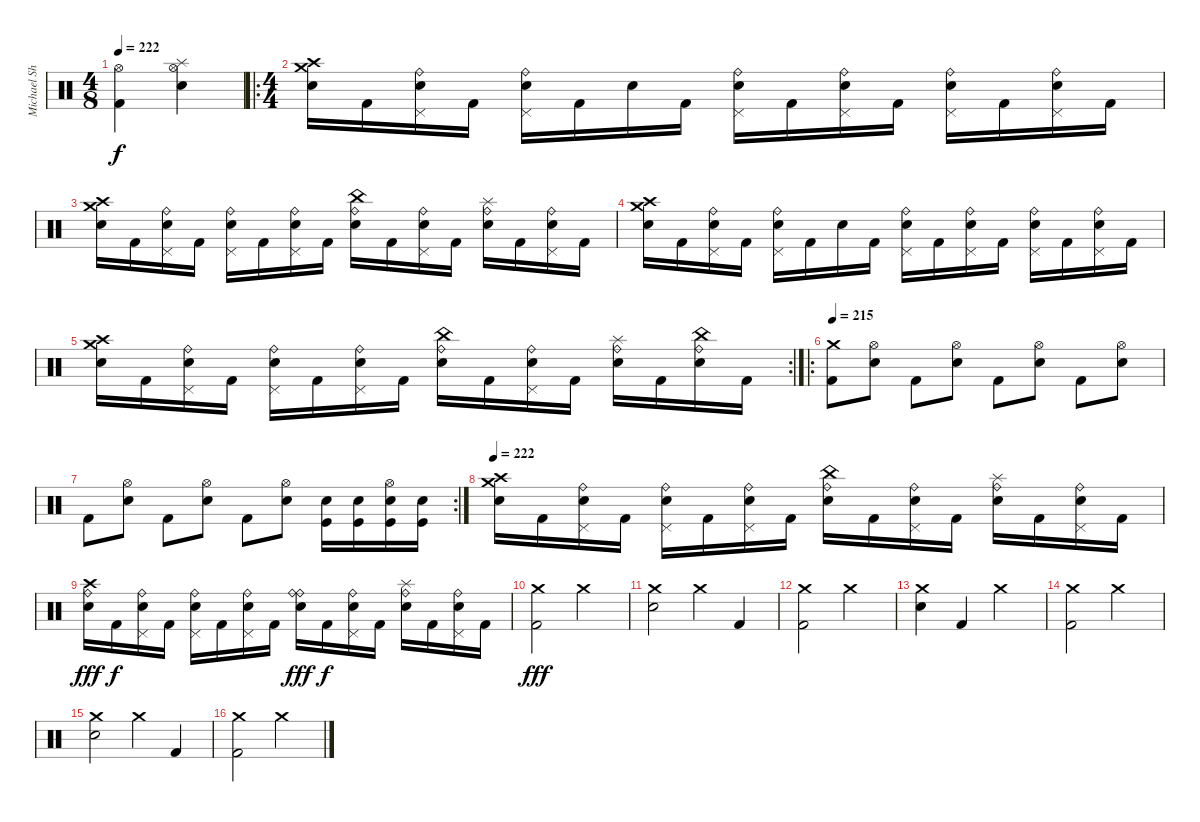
\track ("Michael Sharp" "Michael Sh") {instrument percussion}
\staff {score}
\articulation defaults
\ts (4 8)
\tempo 222
\clef neutral
\ks c
("Hi-Hat (open)" "Kick (hit) 2").4{dy f} ("Hi-Hat (open)" "Splash (hit)" "Electric Snare (hit)").4 |
\ro
\ts (4 4)
("Crash medium (hit)" "Crash high (hit)" "Electric Snare (hit)").16 "Kick (hit) 2".16 ("Pedal Hi-Hat (hit)" "Ride (bell)" "Electric Snare (hit)").16 "Kick (hit) 2".16 ("Pedal Hi-Hat (hit)" "Ride (bell)" "Electric Snare (hit)").16 "Kick (hit) 2".16 "Electric Snare (hit)".16 "Kick (hit) 2".16 ("Pedal Hi-Hat (hit)" "Ride (bell)" "Electric Snare (hit)").16 "Kick (hit) 2".16 ("Pedal Hi-Hat (hit)" "Ride (bell)" "Electric Snare (hit)").16 "Kick (hit) 2".16 ("Pedal Hi-Hat (hit)" "Ride (bell)" "Electric Snare (hit)").16 "Kick (hit) 2".16 ("Pedal Hi-Hat (hit)" "Ride (bell)" "Electric Snare (hit)").16 "Kick (hit) 2".16 |
("Crash medium (hit)" "Crash high (hit)" "Electric Snare (hit)").16 "Kick (hit) 2".16 ("Pedal Hi-Hat (hit)" "Ride (bell)" "Electric Snare (hit)").16 "Kick (hit) 2".16 ("Pedal Hi-Hat (hit)" "Ride (bell)" "Electric Snare (hit)").16 "Kick (hit) 2".16 ("Pedal Hi-Hat (hit)" "Ride (bell)" "Electric Snare (hit)").16 "Kick (hit) 2".16 ("China (hit)" "Ride (bell)" "Electric Snare (hit)").16 "Kick (hit) 2".16 ("Pedal Hi-Hat (hit)" "Ride (bell)" "Electric Snare (hit)").16 "Kick (hit) 2".16 ("Splash (hit)" "Ride (bell)" "Electric Snare (hit)").16 "Kick (hit) 2".16 ("Pedal Hi-Hat (hit)" "Ride (bell)" "Electric Snare (hit)").16 "Kick (hit) 2".16 |
("Crash medium (hit)" "Crash high (hit)" "Electric Snare (hit)").16 "Kick (hit) 2".16 ("Pedal Hi-Hat (hit)" "Ride (bell)" "Electric Snare (hit)").16 "Kick (hit) 2".16 ("Pedal Hi-Hat (hit)" "Ride (bell)" "Electric Snare (hit)").16 "Kick (hit) 2".16 "Electric Snare (hit)".16 "Kick (hit) 2".16 ("Pedal Hi-Hat (hit)" "Ride (bell)" "Electric Snare (hit)").16 "Kick (hit) 2".16 ("Pedal Hi-Hat (hit)" "Ride (bell)" "Electric Snare (hit)").16 "Kick (hit) 2".16 ("Pedal Hi-Hat (hit)" "Ride (bell)" "Electric Snare (hit)").16 "Kick (hit) 2".16 ("Pedal Hi-Hat (hit)" "Ride (bell)" "Electric Snare (hit)").16 "Kick (hit) 2".16 |
\rc 2
("Crash medium (hit)" "Crash high (hit)" "Electric Snare (hit)").16 "Kick (hit) 2".16 ("Pedal Hi-Hat (hit)" "Ride (bell)" "Electric Snare (hit)").16 "Kick (hit) 2".16 ("Pedal Hi-Hat (hit)" "Ride (bell)" "Electric Snare (hit)").16 "Kick (hit) 2".16 ("Pedal Hi-Hat (hit)" "Ride (bell)" "Electric Snare (hit)").16 "Kick (hit) 2".16 ("China (hit)" "Ride (bell)" "Electric Snare (hit)").16 "Kick (hit) 2".16 ("Pedal Hi-Hat (hit)" "Ride (bell)" "Electric Snare (hit)").16 "Kick (hit) 2".16 ("Splash (hit)" "Ride (bell)" "Electric Snare (hit)").16 "Kick (hit) 2".16 ("China (hit)" "Ride (bell)" "Electric Snare (hit)").16 "Kick (hit) 2".16 |
\ro
\tempo 215
("Crash medium (hit)" "Kick (hit) 2").8 ("Hi-Hat (open)" "Electric Snare (hit)").8 "Kick (hit) 2".8 ("Hi-Hat (open)" "Electric Snare (hit)").8 "Kick (hit) 2".8 ("Hi-Hat (open)" "Electric Snare (hit)").8 "Kick (hit) 2".8 ("Hi-Hat (open)" "Electric Snare (hit)").8 |
\rc 2 "Kick (hit) 2".8
("Hi-Hat (open)" "Electric Snare (hit)").8 "Kick (hit) 2".8 ("Hi-Hat (open)" "Electric Snare (hit)").8 "Kick (hit) 2".8 ("Hi-Hat (open)" "Electric Snare (hit)").8 ("Electric Snare (hit)" "Kick (hit)").16 ("Electric Snare (hit)" "Kick (hit)").16 ("Hi-Hat (open)" "Electric Snare (hit)" "Kick (hit)").16 ("Electric Snare (hit)" "Kick (hit)").16 |
\tempo 222
("Crash medium (hit)" "Crash high (hit)" "Electric Snare (hit)").16 "Kick (hit) 2".16 ("Pedal Hi-Hat (hit)" "Ride (bell)" "Electric Snare (hit)").16 "Kick (hit) 2".16 ("Pedal Hi-Hat (hit)" "Ride (bell)" "Electric Snare (hit)").16 "Kick (hit) 2".16 ("Pedal Hi-Hat (hit)" "Ride (bell)" "Electric Snare (hit)").16 "Kick (hit) 2".16 ("China (hit)" "Ride (bell)" "Electric Snare (hit)").16 "Kick (hit) 2".16 ("Pedal Hi-Hat (hit)" "Ride (bell)" "Electric Snare (hit)").16 "Kick (hit) 2".16 ("Splash (hit)" "Ride (bell)" "Electric Snare (hit)").16 "Kick (hit) 2".16 ("Pedal Hi-Hat (hit)" "Ride (bell)" "Electric Snare (hit)").16 "Kick (hit) 2".16 |
("Ride (bell)" "Crash high (hit)" "Electric Snare (hit)").16{dy fff} "Kick (hit) 2".16{dy f} ("Pedal Hi-Hat (hit)" "Ride (bell)" "Electric Snare (hit)").16 "Kick (hit) 2".16 ("Pedal Hi-Hat (hit)" "Ride (bell)" "Electric Snare (hit)").16 "Kick (hit) 2".16 ("Pedal Hi-Hat (hit)" "Ride (bell)" "Electric Snare (hit)").16 "Kick (hit) 2".16 ("Ride (bell)" "Ride (bell)" "Electric Snare (hit)").16{dy fff} "Kick (hit) 2".16{dy f} ("Pedal Hi-Hat (hit)" "Ride (bell)" "Electric Snare (hit)").16 "Kick (hit) 2".16 ("Splash (hit)" "Ride (bell)" "Electric Snare (hit)").16 "Kick (hit) 2".16 ("Pedal Hi-Hat (hit)" "Ride (bell)" "Electric Snare (hit)").16 "Kick (hit) 2".16 |
("Crash medium (hit)" "Kick (hit) 2").2{dy fff} "Crash medium (hit)".2 |
("Crash medium (hit)" "Electric Snare (hit)").2 "Crash medium (hit)".4 "Kick (hit) 2".4 |
("Crash medium (hit)" "Kick (hit) 2").2 "Crash medium (hit)".2 |
("Crash medium (hit)" "Electric Snare (hit)").4 "Kick (hit) 2".4 "Crash medium (hit)".2 |
("Crash medium (hit)" "Kick (hit) 2").2 "Crash medium (hit)".2 |
("Crash medium (hit)" "Electric Snare (hit)").2 "Crash medium (hit)".4 "Kick (hit) 2".4 |
("Crash medium (hit)" "Kick (hit) 2").2 "Crash medium (hit)".2
